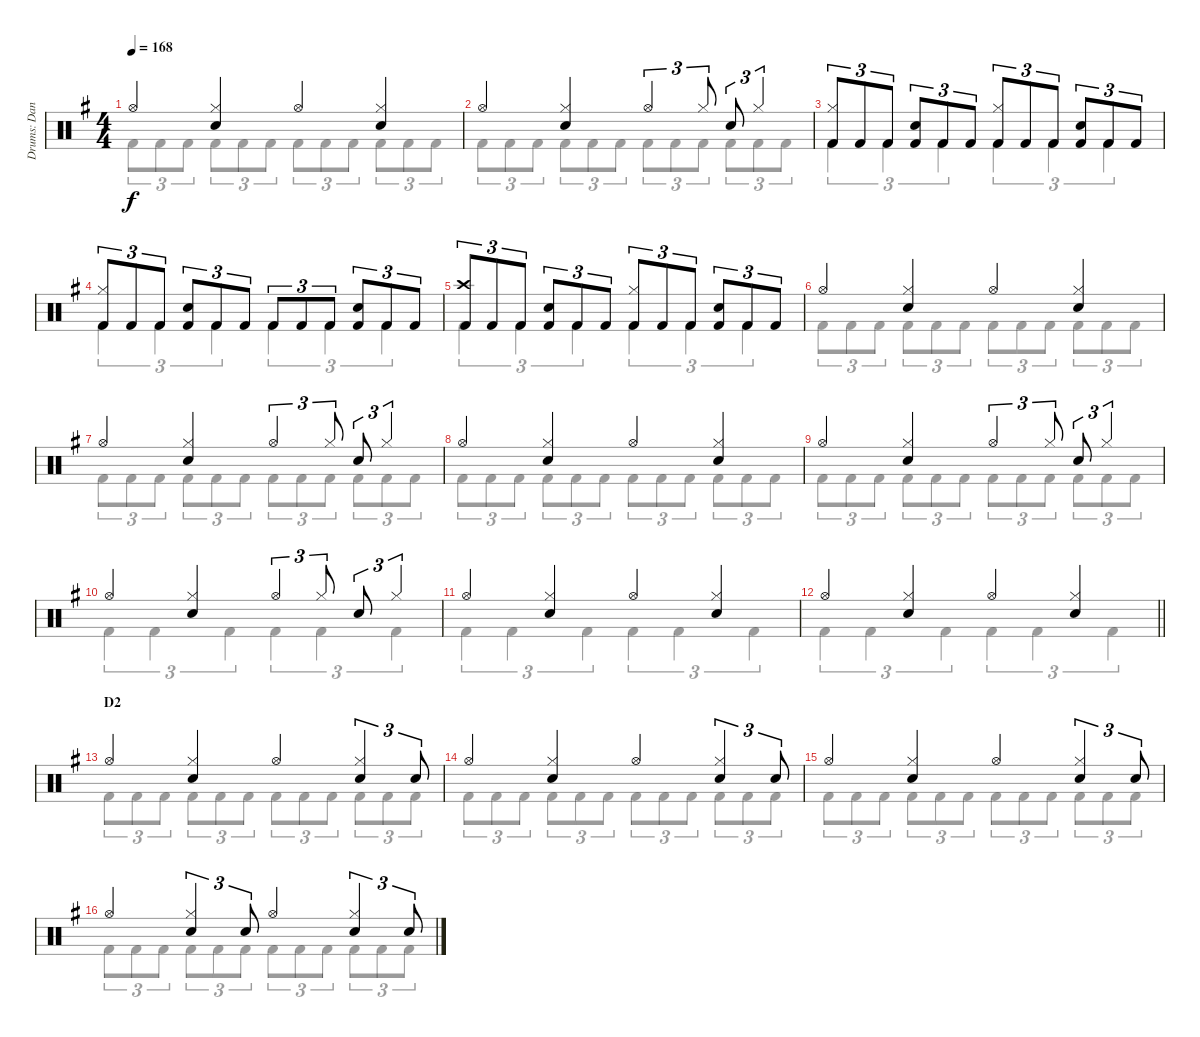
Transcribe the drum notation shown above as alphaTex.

\track ("Drums: Dana" "Drums: Dan") {instrument percussion}
\staff {score}
\articulation defaults
\voice
\ts (4 4)
\tempo 168
\clef neutral
\ks g "Hi-Hat (open)".4{dy f}
("Hi-Hat (closed)" "Snare (hit) 2").4 "Hi-Hat (open)".4 ("Hi-Hat (closed)" "Snare (hit) 2").4 |
"Hi-Hat (open)".4 ("Hi-Hat (closed)" "Snare (hit) 2").4 "Hi-Hat (open)".4{tu (3 2)} "Hi-Hat (closed)".8{tu (3 2)} "Snare (hit) 2".8{tu (3 2)} "Hi-Hat (closed)".4{tu (3 2)} |
("Hi-Hat (closed)" "Kick (hit) 2").8{tu (3 2)} "Kick (hit) 2".8{tu (3 2)} "Kick (hit) 2".8{tu (3 2)} ("Electric Snare (hit)" "Kick (hit) 2").8{tu (3 2)} "Kick (hit) 2".8{tu (3 2)} "Kick (hit) 2".8{tu (3 2)} ("Hi-Hat (closed)" "Kick (hit) 2").8{tu (3 2)} "Kick (hit) 2".8{tu (3 2)} "Kick (hit) 2".8{tu (3 2)} ("Electric Snare (hit)" "Kick (hit) 2").8{tu (3 2)} "Kick (hit) 2".8{tu (3 2)} "Kick (hit) 2".8{tu (3 2)} |
("Hi-Hat (closed)" "Kick (hit) 2").8{tu (3 2)} "Kick (hit) 2".8{tu (3 2)} "Kick (hit) 2".8{tu (3 2)} ("Electric Snare (hit)" "Kick (hit) 2").8{tu (3 2)} "Kick (hit) 2".8{tu (3 2)} "Kick (hit) 2".8{tu (3 2)} "Kick (hit) 2".8{tu (3 2)} "Kick (hit) 2".8{tu (3 2)} "Kick (hit) 2".8{tu (3 2)} ("Electric Snare (hit)" "Kick (hit) 2").8{tu (3 2)} "Kick (hit) 2".8{tu (3 2)} "Kick (hit) 2".8{tu (3 2)} |
("Crash high (hit)" "Kick (hit) 2").8{tu (3 2)} "Kick (hit) 2".8{tu (3 2)} "Kick (hit) 2".8{tu (3 2)} ("Electric Snare (hit)" "Kick (hit) 2").8{tu (3 2)} "Kick (hit) 2".8{tu (3 2)} "Kick (hit) 2".8{tu (3 2)} ("Hi-Hat (closed)" "Kick (hit) 2").8{tu (3 2)} "Kick (hit) 2".8{tu (3 2)} "Kick (hit) 2".8{tu (3 2)} ("Electric Snare (hit)" "Kick (hit) 2").8{tu (3 2)} "Kick (hit) 2".8{tu (3 2)} "Kick (hit) 2".8{tu (3 2)} |
"Hi-Hat (open)".4 ("Hi-Hat (closed)" "Snare (hit) 2").4 "Hi-Hat (open)".4 ("Hi-Hat (closed)" "Snare (hit) 2").4 |
"Hi-Hat (open)".4 ("Hi-Hat (closed)" "Snare (hit) 2").4 "Hi-Hat (open)".4{tu (3 2)} "Hi-Hat (closed)".8{tu (3 2)} "Snare (hit) 2".8{tu (3 2)} "Hi-Hat (closed)".4{tu (3 2)} |
"Hi-Hat (open)".4 ("Hi-Hat (closed)" "Snare (hit) 2").4 "Hi-Hat (open)".4 ("Hi-Hat (closed)" "Snare (hit) 2").4 |
"Hi-Hat (open)".4 ("Hi-Hat (closed)" "Snare (hit) 2").4 "Hi-Hat (open)".4{tu (3 2)} "Hi-Hat (closed)".8{tu (3 2)} "Snare (hit) 2".8{tu (3 2)} "Hi-Hat (closed)".4{tu (3 2)} |
"Hi-Hat (open)".4 ("Hi-Hat (closed)" "Snare (hit) 2").4 "Hi-Hat (open)".4{tu (3 2)} "Hi-Hat (closed)".8{tu (3 2)} "Snare (hit) 2".8{tu (3 2)} "Hi-Hat (closed)".4{tu (3 2)} |
"Hi-Hat (open)".4 ("Hi-Hat (closed)" "Snare (hit) 2").4 "Hi-Hat (open)".4 ("Hi-Hat (closed)" "Snare (hit) 2").4 |
\barLineRight lightlight "Hi-Hat (open)".4
("Hi-Hat (closed)" "Snare (hit) 2").4 "Hi-Hat (open)".4 ("Hi-Hat (closed)" "Snare (hit) 2").4 |
\section ("" "D2")
"Hi-Hat (open)".4 ("Hi-Hat (closed)" "Snare (hit) 2").4 "Hi-Hat (open)".4 ("Hi-Hat (closed)" "Snare (hit) 2").4{tu (3 2)} "Snare (hit) 2".8{tu (3 2)} |
"Hi-Hat (open)".4 ("Hi-Hat (closed)" "Snare (hit) 2").4 "Hi-Hat (open)".4 ("Hi-Hat (closed)" "Snare (hit) 2").4{tu (3 2)} "Snare (hit) 2".8{tu (3 2)} |
"Hi-Hat (open)".4 ("Hi-Hat (closed)" "Snare (hit) 2").4 "Hi-Hat (open)".4 ("Hi-Hat (closed)" "Snare (hit) 2").4{tu (3 2)} "Snare (hit) 2".8{tu (3 2)} |
"Hi-Hat (open)".4 ("Hi-Hat (closed)" "Snare (hit) 2").4{tu (3 2)} "Snare (hit) 2".8{tu (3 2)} "Hi-Hat (open)".4 ("Hi-Hat (closed)" "Snare (hit) 2").4{tu (3 2)} "Snare (hit) 2".8{tu (3 2)}
\voice
\clef neutral
\ottava regular
\simile none
\ks g "Kick (hit) 2".8{tu (3 2) dy f} "Kick (hit) 2".8{tu (3 2)} "Kick (hit) 2".8{tu (3 2)} "Kick (hit) 2".8{tu (3 2)} "Kick (hit) 2".8{tu (3 2)} "Kick (hit) 2".8{tu (3 2)} "Kick (hit) 2".8{tu (3 2)} "Kick (hit) 2".8{tu (3 2)} "Kick (hit) 2".8{tu (3 2)} "Kick (hit) 2".8{tu (3 2)} "Kick (hit) 2".8{tu (3 2)} "Kick (hit) 2".8{tu (3 2)}
|
"Kick (hit) 2".8{tu (3 2)} "Kick (hit) 2".8{tu (3 2)} "Kick (hit) 2".8{tu (3 2)} "Kick (hit) 2".8{tu (3 2)} "Kick (hit) 2".8{tu (3 2)} "Kick (hit) 2".8{tu (3 2)} "Kick (hit) 2".8{tu (3 2)} "Kick (hit) 2".8{tu (3 2)} "Kick (hit) 2".8{tu (3 2)} "Kick (hit) 2".8{tu (3 2)} "Kick (hit) 2".8{tu (3 2)} "Kick (hit) 2".8{tu (3 2)} |
"Kick (hit) 2".4{tu (3 2)} "Kick (hit) 2".4{tu (3 2)} "Kick (hit) 2".4{tu (3 2)} "Kick (hit) 2".4{tu (3 2)} "Kick (hit) 2".4{tu (3 2)} "Kick (hit) 2".4{tu (3 2)} |
"Kick (hit) 2".4{tu (3 2)} "Kick (hit) 2".4{tu (3 2)} "Kick (hit) 2".4{tu (3 2)} "Kick (hit) 2".4{tu (3 2)} "Kick (hit) 2".4{tu (3 2)} "Kick (hit) 2".4{tu (3 2)} |
"Kick (hit) 2".4{tu (3 2)} "Kick (hit) 2".4{tu (3 2)} "Kick (hit) 2".4{tu (3 2)} "Kick (hit) 2".4{tu (3 2)} "Kick (hit) 2".4{tu (3 2)} "Kick (hit) 2".4{tu (3 2)} |
"Kick (hit) 2".8{tu (3 2)} "Kick (hit) 2".8{tu (3 2)} "Kick (hit) 2".8{tu (3 2)} "Kick (hit) 2".8{tu (3 2)} "Kick (hit) 2".8{tu (3 2)} "Kick (hit) 2".8{tu (3 2)} "Kick (hit) 2".8{tu (3 2)} "Kick (hit) 2".8{tu (3 2)} "Kick (hit) 2".8{tu (3 2)} "Kick (hit) 2".8{tu (3 2)} "Kick (hit) 2".8{tu (3 2)} "Kick (hit) 2".8{tu (3 2)} |
"Kick (hit) 2".8{tu (3 2)} "Kick (hit) 2".8{tu (3 2)} "Kick (hit) 2".8{tu (3 2)} "Kick (hit) 2".8{tu (3 2)} "Kick (hit) 2".8{tu (3 2)} "Kick (hit) 2".8{tu (3 2)} "Kick (hit) 2".8{tu (3 2)} "Kick (hit) 2".8{tu (3 2)} "Kick (hit) 2".8{tu (3 2)} "Kick (hit) 2".8{tu (3 2)} "Kick (hit) 2".8{tu (3 2)} "Kick (hit) 2".8{tu (3 2)} |
"Kick (hit) 2".8{tu (3 2)} "Kick (hit) 2".8{tu (3 2)} "Kick (hit) 2".8{tu (3 2)} "Kick (hit) 2".8{tu (3 2)} "Kick (hit) 2".8{tu (3 2)} "Kick (hit) 2".8{tu (3 2)} "Kick (hit) 2".8{tu (3 2)} "Kick (hit) 2".8{tu (3 2)} "Kick (hit) 2".8{tu (3 2)} "Kick (hit) 2".8{tu (3 2)} "Kick (hit) 2".8{tu (3 2)} "Kick (hit) 2".8{tu (3 2)} |
"Kick (hit) 2".8{tu (3 2)} "Kick (hit) 2".8{tu (3 2)} "Kick (hit) 2".8{tu (3 2)} "Kick (hit) 2".8{tu (3 2)} "Kick (hit) 2".8{tu (3 2)} "Kick (hit) 2".8{tu (3 2)} "Kick (hit) 2".8{tu (3 2)} "Kick (hit) 2".8{tu (3 2)} "Kick (hit) 2".8{tu (3 2)} "Kick (hit) 2".8{tu (3 2)} "Kick (hit) 2".8{tu (3 2)} "Kick (hit) 2".8{tu (3 2)} |
"Kick (hit) 2".4{tu (3 2)} "Kick (hit) 2".4{tu (3 2)} "Kick (hit) 2".4{tu (3 2)} "Kick (hit) 2".4{tu (3 2)} "Kick (hit) 2".4{tu (3 2)} "Kick (hit) 2".4{tu (3 2)} |
"Kick (hit) 2".4{tu (3 2)} "Kick (hit) 2".4{tu (3 2)} "Kick (hit) 2".4{tu (3 2)} "Kick (hit) 2".4{tu (3 2)} "Kick (hit) 2".4{tu (3 2)} "Kick (hit) 2".4{tu (3 2)} |
\barLineRight lightlight "Kick (hit) 2".4{tu (3 2)} "Kick (hit) 2".4{tu (3 2)} "Kick (hit) 2".4{tu (3 2)} "Kick (hit) 2".4{tu (3 2)} "Kick (hit) 2".4{tu (3 2)} "Kick (hit) 2".4{tu (3 2)}
|
"Kick (hit) 2".8{tu (3 2)} "Kick (hit) 2".8{tu (3 2)} "Kick (hit) 2".8{tu (3 2)} "Kick (hit) 2".8{tu (3 2)} "Kick (hit) 2".8{tu (3 2)} "Kick (hit) 2".8{tu (3 2)} "Kick (hit) 2".8{tu (3 2)} "Kick (hit) 2".8{tu (3 2)} "Kick (hit) 2".8{tu (3 2)} "Kick (hit) 2".8{tu (3 2)} "Kick (hit) 2".8{tu (3 2)} "Kick (hit) 2".8{tu (3 2)} |
"Kick (hit) 2".8{tu (3 2)} "Kick (hit) 2".8{tu (3 2)} "Kick (hit) 2".8{tu (3 2)} "Kick (hit) 2".8{tu (3 2)} "Kick (hit) 2".8{tu (3 2)} "Kick (hit) 2".8{tu (3 2)} "Kick (hit) 2".8{tu (3 2)} "Kick (hit) 2".8{tu (3 2)} "Kick (hit) 2".8{tu (3 2)} "Kick (hit) 2".8{tu (3 2)} "Kick (hit) 2".8{tu (3 2)} "Kick (hit) 2".8{tu (3 2)} |
"Kick (hit) 2".8{tu (3 2)} "Kick (hit) 2".8{tu (3 2)} "Kick (hit) 2".8{tu (3 2)} "Kick (hit) 2".8{tu (3 2)} "Kick (hit) 2".8{tu (3 2)} "Kick (hit) 2".8{tu (3 2)} "Kick (hit) 2".8{tu (3 2)} "Kick (hit) 2".8{tu (3 2)} "Kick (hit) 2".8{tu (3 2)} "Kick (hit) 2".8{tu (3 2)} "Kick (hit) 2".8{tu (3 2)} "Kick (hit) 2".8{tu (3 2)} |
"Kick (hit) 2".8{tu (3 2)} "Kick (hit) 2".8{tu (3 2)} "Kick (hit) 2".8{tu (3 2)} "Kick (hit) 2".8{tu (3 2)} "Kick (hit) 2".8{tu (3 2)} "Kick (hit) 2".8{tu (3 2)} "Kick (hit) 2".8{tu (3 2)} "Kick (hit) 2".8{tu (3 2)} "Kick (hit) 2".8{tu (3 2)} "Kick (hit) 2".8{tu (3 2)} "Kick (hit) 2".8{tu (3 2)} "Kick (hit) 2".8{tu (3 2)}
